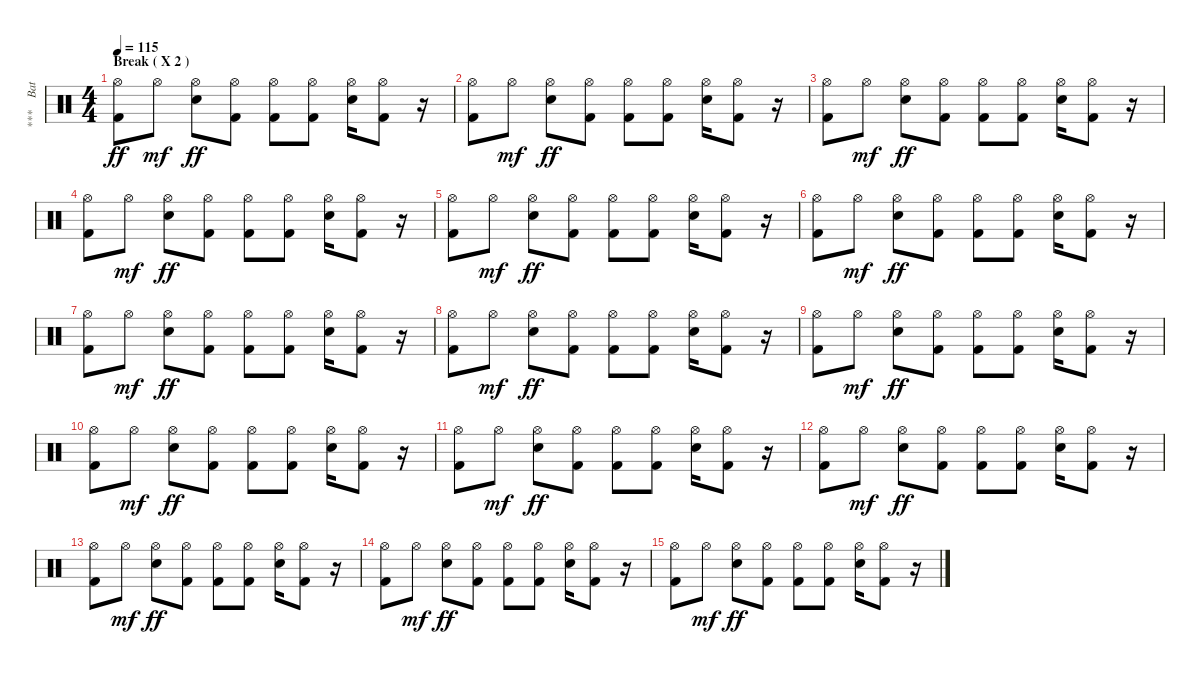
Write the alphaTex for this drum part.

\track ("***    Batterie     ***" "***    Bat") {instrument percussion}
\staff {score}
\articulation defaults
\ts (4 4)
\section ("" "Break ( X 2 )")
\tempo 115
\clef neutral
\ks c
("Hi-Hat (open)" "Kick (hit) 2").8{dy ff} "Hi-Hat (open)".8{dy mf} ("Hi-Hat (open)" "Snare (hit) 2").8{dy ff} ("Hi-Hat (open)" "Kick (hit) 2").8 ("Hi-Hat (open)" "Kick (hit) 2").8 ("Hi-Hat (open)" "Kick (hit) 2").8 ("Hi-Hat (open)" "Snare (hit) 2").16 ("Hi-Hat (open)" "Kick (hit) 2").8 r.16 |
("Hi-Hat (open)" "Kick (hit) 2").8 "Hi-Hat (open)".8{dy mf} ("Hi-Hat (open)" "Snare (hit) 2").8{dy ff} ("Hi-Hat (open)" "Kick (hit) 2").8 ("Hi-Hat (open)" "Kick (hit) 2").8 ("Hi-Hat (open)" "Kick (hit) 2").8 ("Hi-Hat (open)" "Snare (hit) 2").16 ("Hi-Hat (open)" "Kick (hit) 2").8 r.16 |
("Hi-Hat (open)" "Kick (hit) 2").8 "Hi-Hat (open)".8{dy mf} ("Hi-Hat (open)" "Snare (hit) 2").8{dy ff} ("Hi-Hat (open)" "Kick (hit) 2").8 ("Hi-Hat (open)" "Kick (hit) 2").8 ("Hi-Hat (open)" "Kick (hit) 2").8 ("Hi-Hat (open)" "Snare (hit) 2").16 ("Hi-Hat (open)" "Kick (hit) 2").8 r.16 |
("Hi-Hat (open)" "Kick (hit) 2").8 "Hi-Hat (open)".8{dy mf} ("Hi-Hat (open)" "Snare (hit) 2").8{dy ff} ("Hi-Hat (open)" "Kick (hit) 2").8 ("Hi-Hat (open)" "Kick (hit) 2").8 ("Hi-Hat (open)" "Kick (hit) 2").8 ("Hi-Hat (open)" "Snare (hit) 2").16 ("Hi-Hat (open)" "Kick (hit) 2").8 r.16 |
("Hi-Hat (open)" "Kick (hit) 2").8 "Hi-Hat (open)".8{dy mf} ("Hi-Hat (open)" "Snare (hit) 2").8{dy ff} ("Hi-Hat (open)" "Kick (hit) 2").8 ("Hi-Hat (open)" "Kick (hit) 2").8 ("Hi-Hat (open)" "Kick (hit) 2").8 ("Hi-Hat (open)" "Snare (hit) 2").16 ("Hi-Hat (open)" "Kick (hit) 2").8 r.16 |
("Hi-Hat (open)" "Kick (hit) 2").8 "Hi-Hat (open)".8{dy mf} ("Hi-Hat (open)" "Snare (hit) 2").8{dy ff} ("Hi-Hat (open)" "Kick (hit) 2").8 ("Hi-Hat (open)" "Kick (hit) 2").8 ("Hi-Hat (open)" "Kick (hit) 2").8 ("Hi-Hat (open)" "Snare (hit) 2").16 ("Hi-Hat (open)" "Kick (hit) 2").8 r.16 |
("Hi-Hat (open)" "Kick (hit) 2").8 "Hi-Hat (open)".8{dy mf} ("Hi-Hat (open)" "Snare (hit) 2").8{dy ff} ("Hi-Hat (open)" "Kick (hit) 2").8 ("Hi-Hat (open)" "Kick (hit) 2").8 ("Hi-Hat (open)" "Kick (hit) 2").8 ("Hi-Hat (open)" "Snare (hit) 2").16 ("Hi-Hat (open)" "Kick (hit) 2").8 r.16 |
("Hi-Hat (open)" "Kick (hit) 2").8 "Hi-Hat (open)".8{dy mf} ("Hi-Hat (open)" "Snare (hit) 2").8{dy ff} ("Hi-Hat (open)" "Kick (hit) 2").8 ("Hi-Hat (open)" "Kick (hit) 2").8 ("Hi-Hat (open)" "Kick (hit) 2").8 ("Hi-Hat (open)" "Snare (hit) 2").16 ("Hi-Hat (open)" "Kick (hit) 2").8 r.16 |
("Hi-Hat (open)" "Kick (hit) 2").8 "Hi-Hat (open)".8{dy mf} ("Hi-Hat (open)" "Snare (hit) 2").8{dy ff} ("Hi-Hat (open)" "Kick (hit) 2").8 ("Hi-Hat (open)" "Kick (hit) 2").8 ("Hi-Hat (open)" "Kick (hit) 2").8 ("Hi-Hat (open)" "Snare (hit) 2").16 ("Hi-Hat (open)" "Kick (hit) 2").8 r.16 |
("Hi-Hat (open)" "Kick (hit) 2").8 "Hi-Hat (open)".8{dy mf} ("Hi-Hat (open)" "Snare (hit) 2").8{dy ff} ("Hi-Hat (open)" "Kick (hit) 2").8 ("Hi-Hat (open)" "Kick (hit) 2").8 ("Hi-Hat (open)" "Kick (hit) 2").8 ("Hi-Hat (open)" "Snare (hit) 2").16 ("Hi-Hat (open)" "Kick (hit) 2").8 r.16 |
("Hi-Hat (open)" "Kick (hit) 2").8 "Hi-Hat (open)".8{dy mf} ("Hi-Hat (open)" "Snare (hit) 2").8{dy ff} ("Hi-Hat (open)" "Kick (hit) 2").8 ("Hi-Hat (open)" "Kick (hit) 2").8 ("Hi-Hat (open)" "Kick (hit) 2").8 ("Hi-Hat (open)" "Snare (hit) 2").16 ("Hi-Hat (open)" "Kick (hit) 2").8 r.16 |
("Hi-Hat (open)" "Kick (hit) 2").8 "Hi-Hat (open)".8{dy mf} ("Hi-Hat (open)" "Snare (hit) 2").8{dy ff} ("Hi-Hat (open)" "Kick (hit) 2").8 ("Hi-Hat (open)" "Kick (hit) 2").8 ("Hi-Hat (open)" "Kick (hit) 2").8 ("Hi-Hat (open)" "Snare (hit) 2").16 ("Hi-Hat (open)" "Kick (hit) 2").8 r.16 |
("Hi-Hat (open)" "Kick (hit) 2").8 "Hi-Hat (open)".8{dy mf} ("Hi-Hat (open)" "Snare (hit) 2").8{dy ff} ("Hi-Hat (open)" "Kick (hit) 2").8 ("Hi-Hat (open)" "Kick (hit) 2").8 ("Hi-Hat (open)" "Kick (hit) 2").8 ("Hi-Hat (open)" "Snare (hit) 2").16 ("Hi-Hat (open)" "Kick (hit) 2").8 r.16 |
("Hi-Hat (open)" "Kick (hit) 2").8 "Hi-Hat (open)".8{dy mf} ("Hi-Hat (open)" "Snare (hit) 2").8{dy ff} ("Hi-Hat (open)" "Kick (hit) 2").8 ("Hi-Hat (open)" "Kick (hit) 2").8 ("Hi-Hat (open)" "Kick (hit) 2").8 ("Hi-Hat (open)" "Snare (hit) 2").16 ("Hi-Hat (open)" "Kick (hit) 2").8 r.16 |
("Hi-Hat (open)" "Kick (hit) 2").8 "Hi-Hat (open)".8{dy mf} ("Hi-Hat (open)" "Snare (hit) 2").8{dy ff} ("Hi-Hat (open)" "Kick (hit) 2").8 ("Hi-Hat (open)" "Kick (hit) 2").8 ("Hi-Hat (open)" "Kick (hit) 2").8 ("Hi-Hat (open)" "Snare (hit) 2").16 ("Hi-Hat (open)" "Kick (hit) 2").8 r.16
